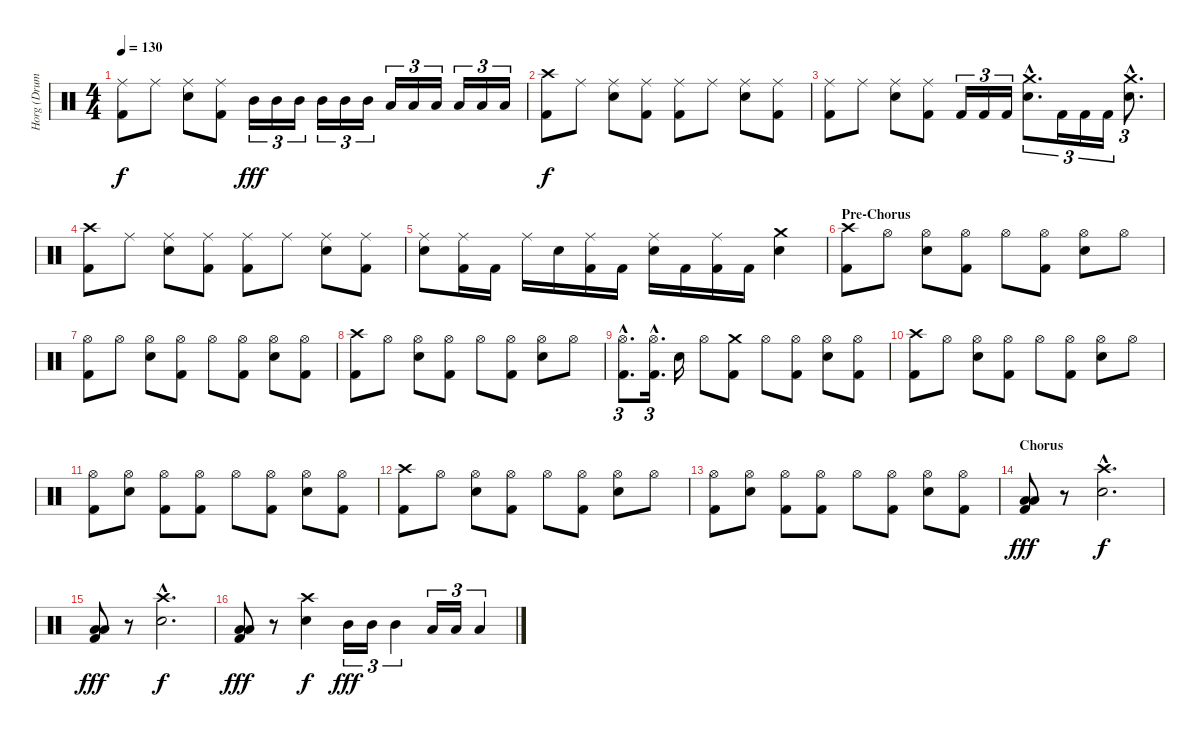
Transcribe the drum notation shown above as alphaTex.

\track ("Horg (Drums)" "Horg (Drum") {instrument percussion}
\staff {score}
\articulation defaults
\ts (4 4)
\tempo 130
\clef neutral
\ks c
("Ride (middle)" "Kick (hit) 2").8{dy f} "Ride (middle)".8 ("Ride (middle)" "Electric Snare (hit)").8 ("Ride (middle)" "Kick (hit) 2").8 "Mid Tom (hit)".16{tu (3 2) dy fff} "Mid Tom (hit)".16{tu (3 2)} "Mid Tom (hit)".16{tu (3 2)} "Mid Tom (hit)".16{tu (3 2)} "Mid Tom (hit)".16{tu (3 2)} "Mid Tom (hit)".16{tu (3 2)} "Low Tom (hit)".16{tu (3 2)} "Low Tom (hit)".16{tu (3 2)} "Low Tom (hit)".16{tu (3 2)} "Low Tom (hit)".16{tu (3 2)} "Low Tom (hit)".16{tu (3 2)} "Low Tom (hit)".16{tu (3 2)} |
("Crash high (hit)" "Kick (hit) 2").8{dy f} "Ride (middle)".8 ("Ride (middle)" "Electric Snare (hit)").8 ("Ride (middle)" "Kick (hit) 2").8 ("Ride (middle)" "Kick (hit) 2").8 "Ride (middle)".8 ("Ride (middle)" "Electric Snare (hit)").8 ("Ride (middle)" "Kick (hit) 2").8 |
("Ride (middle)" "Kick (hit) 2").8 "Ride (middle)".8 ("Ride (middle)" "Electric Snare (hit)").8 ("Ride (middle)" "Kick (hit) 2").8 "Kick (hit) 2".16{tu (3 2)} "Kick (hit) 2".16{tu (3 2)} "Kick (hit) 2".16{tu (3 2)} ("Crash medium (hit)"{hac} "Electric Snare (hit)"{hac}).8{d tu (3 2)} "Kick (hit) 2".16{tu (3 2)} "Kick (hit) 2".16{tu (3 2)} "Kick (hit) 2".16{tu (3 2)} ("Crash medium (hit)"{hac} "Electric Snare (hit)"{hac}).8{d tu (3 2)} |
("Crash high (hit)" "Kick (hit) 2").8 "Ride (middle)".8 ("Ride (middle)" "Electric Snare (hit)").8 ("Ride (middle)" "Kick (hit) 2").8 ("Ride (middle)" "Kick (hit) 2").8 "Ride (middle)".8 ("Ride (middle)" "Electric Snare (hit)").8 ("Ride (middle)" "Kick (hit) 2").8 |
("Ride (middle)" "Electric Snare (hit)").8 ("Ride (middle)" "Kick (hit) 2").16 "Kick (hit) 2".16 "Ride (middle)".16 "Electric Snare (hit)".16 ("Ride (middle)" "Kick (hit) 2").16 "Kick (hit) 2".16 ("Ride (middle)" "Electric Snare (hit)").16 "Kick (hit) 2".16 ("Ride (middle)" "Kick (hit) 2").16 "Kick (hit) 2".16 ("Crash medium (hit)" "Electric Snare (hit)").4 |
\section ("" "Pre-Chorus")
("Crash high (hit)" "Kick (hit) 2").8 "Hi-Hat (open)".8 ("Hi-Hat (open)" "Electric Snare (hit)").8 ("Hi-Hat (open)" "Kick (hit) 2").8 "Hi-Hat (open)".8 ("Hi-Hat (open)" "Kick (hit) 2").8 ("Hi-Hat (open)" "Electric Snare (hit)").8 "Hi-Hat (open)".8 |
("Hi-Hat (open)" "Kick (hit) 2").8 "Hi-Hat (open)".8 ("Hi-Hat (open)" "Electric Snare (hit)").8 ("Hi-Hat (open)" "Kick (hit) 2").8 "Hi-Hat (open)".8 ("Hi-Hat (open)" "Kick (hit) 2").8 ("Hi-Hat (open)" "Electric Snare (hit)").8 ("Hi-Hat (open)" "Kick (hit) 2").8 |
("Crash high (hit)" "Kick (hit) 2").8 "Hi-Hat (open)".8 ("Hi-Hat (open)" "Electric Snare (hit)").8 ("Hi-Hat (open)" "Kick (hit) 2").8 "Hi-Hat (open)".8 ("Hi-Hat (open)" "Kick (hit) 2").8 ("Hi-Hat (open)" "Electric Snare (hit)").8 "Hi-Hat (open)".8 |
("Hi-Hat (open)"{hac} "Kick (hit) 2"{hac}).8{d tu (3 2)} ("Hi-Hat (open)"{hac} "Kick (hit) 2"{hac}).16{d tu (3 2)} "Electric Snare (hit)".16 "Hi-Hat (open)".8 ("Crash medium (hit)" "Kick (hit) 2").8 "Hi-Hat (open)".8 ("Hi-Hat (open)" "Kick (hit) 2").8 ("Hi-Hat (open)" "Electric Snare (hit)").8 ("Hi-Hat (open)" "Kick (hit) 2").8 |
("Crash high (hit)" "Kick (hit) 2").8 "Hi-Hat (open)".8 ("Hi-Hat (open)" "Electric Snare (hit)").8 ("Hi-Hat (open)" "Kick (hit) 2").8 "Hi-Hat (open)".8 ("Hi-Hat (open)" "Kick (hit) 2").8 ("Hi-Hat (open)" "Electric Snare (hit)").8 "Hi-Hat (open)".8 |
("Hi-Hat (open)" "Kick (hit) 2").8 ("Hi-Hat (open)" "Electric Snare (hit)").8 ("Hi-Hat (open)" "Kick (hit) 2").8 ("Hi-Hat (open)" "Kick (hit) 2").8 "Hi-Hat (open)".8 ("Hi-Hat (open)" "Kick (hit) 2").8 ("Hi-Hat (open)" "Electric Snare (hit)").8 ("Hi-Hat (open)" "Kick (hit) 2").8 |
("Crash high (hit)" "Kick (hit) 2").8 "Hi-Hat (open)".8 ("Hi-Hat (open)" "Electric Snare (hit)").8 ("Hi-Hat (open)" "Kick (hit) 2").8 "Hi-Hat (open)".8 ("Hi-Hat (open)" "Kick (hit) 2").8 ("Hi-Hat (open)" "Electric Snare (hit)").8 "Hi-Hat (open)".8 |
("Hi-Hat (open)" "Kick (hit) 2").8 ("Hi-Hat (open)" "Electric Snare (hit)").8 ("Hi-Hat (open)" "Kick (hit) 2").8 ("Hi-Hat (open)" "Kick (hit) 2").8 "Hi-Hat (open)".8 ("Hi-Hat (open)" "Kick (hit) 2").8 ("Hi-Hat (open)" "Electric Snare (hit)").8 ("Hi-Hat (open)" "Kick (hit) 2").8 |
\section ("" "Chorus")
("Low Floor Tom (hit)" "Low Floor Tom (hit)" "Kick (hit) 2").8{dy fff} r.8 ("Crash high (hit)"{hac} "Electric Snare (hit)"{hac}).2{d dy f} |
("Low Floor Tom (hit)" "Low Floor Tom (hit)" "Kick (hit) 2").8{dy fff} r.8 ("Crash high (hit)"{hac} "Electric Snare (hit)"{hac}).2{d dy f} |
("Low Floor Tom (hit)" "Low Floor Tom (hit)" "Kick (hit) 2").8{dy fff} r.8 ("Crash high (hit)" "Electric Snare (hit)").4{dy f} "Mid Tom (hit)".16{tu (3 2) dy fff} "Mid Tom (hit)".16{tu (3 2)} "Mid Tom (hit)".4{tu (3 2)} "Low Tom (hit)".16{tu (3 2)} "Low Tom (hit)".16{tu (3 2)} "Low Tom (hit)".4{tu (3 2)}
